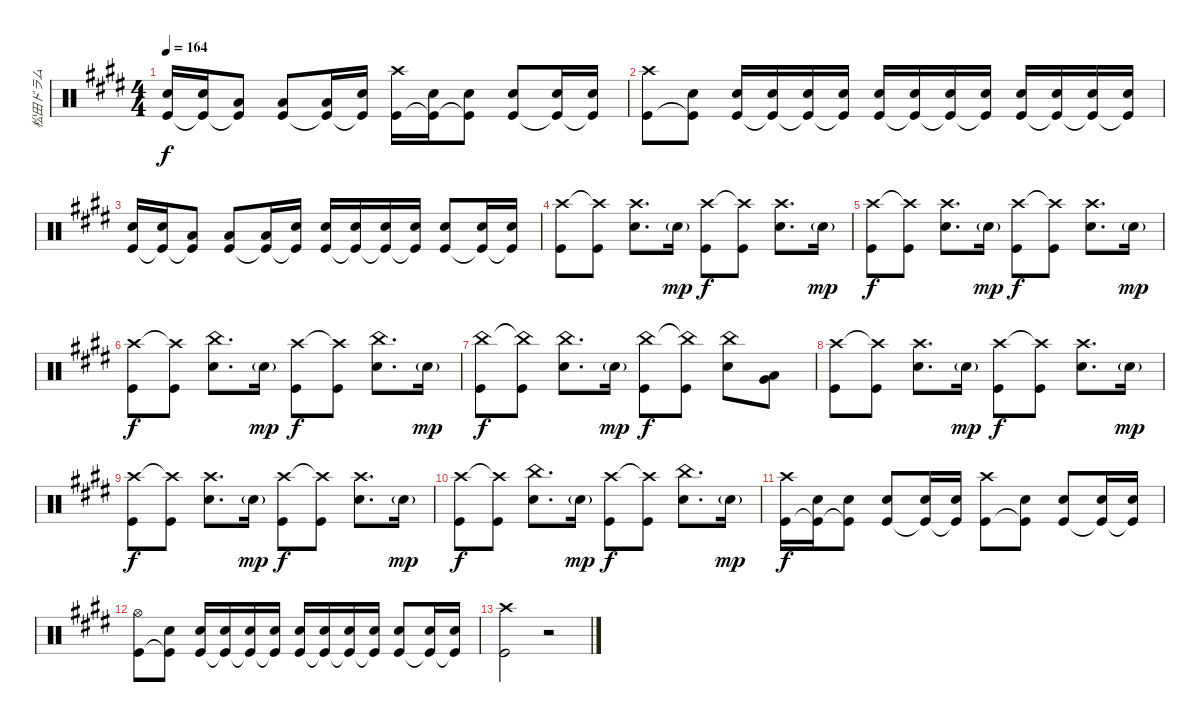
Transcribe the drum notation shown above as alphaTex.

\track ("松田ドラム" "松田ドラム") {instrument percussion}
\staff {score}
\articulation defaults
\ts (4 4)
\tempo 164
\clef neutral
\ks e
("Snare (hit) 2" "Kick (hit)").16{dy f} ("Snare (hit) 2" "Kick (hit)"{t}).16 ("Low Tom (hit)" "Kick (hit)"{t}).8 ("Low Tom (hit)" "Kick (hit)").8 ("Low Tom (hit)" "Kick (hit)"{t}).16 ("Snare (hit) 2" "Kick (hit)"{t}).16 ("Crash high (hit)" "Kick (hit)").16 ("Snare (hit) 2" "Kick (hit)"{t}).16 ("Snare (hit) 2" "Kick (hit)"{t}).8 ("Snare (hit) 2" "Kick (hit)").8 ("Snare (hit) 2" "Kick (hit)"{t}).16 ("Snare (hit) 2" "Kick (hit)"{t}).16 |
("Crash high (hit)" "Kick (hit)").8 ("Snare (hit) 2" "Kick (hit)"{t}).8 ("Snare (hit) 2" "Kick (hit)").16 ("Snare (hit) 2" "Kick (hit)"{t}).16 ("Snare (hit) 2" "Kick (hit)"{t}).16 ("Snare (hit) 2" "Kick (hit)"{t}).16 ("Snare (hit) 2" "Kick (hit)").16 ("Snare (hit) 2" "Kick (hit)"{t}).16 ("Snare (hit) 2" "Kick (hit)"{t}).16 ("Snare (hit) 2" "Kick (hit)"{t}).16 ("Snare (hit) 2" "Kick (hit)").16 ("Snare (hit) 2" "Kick (hit)"{t}).16 ("Snare (hit) 2" "Kick (hit)"{t}).16 ("Snare (hit) 2" "Kick (hit)"{t}).16 |
("Snare (hit) 2" "Kick (hit)").16 ("Snare (hit) 2" "Kick (hit)"{t}).16 ("Low Tom (hit)" "Kick (hit)"{t}).8 ("Low Tom (hit)" "Kick (hit)").8 ("Low Tom (hit)" "Kick (hit)"{t}).16 ("Snare (hit) 2" "Kick (hit)"{t}).16 ("Snare (hit) 2" "Kick (hit)").16 ("Snare (hit) 2" "Kick (hit)"{t}).16 ("Snare (hit) 2" "Kick (hit)"{t}).16 ("Snare (hit) 2" "Kick (hit)"{t}).16 ("Snare (hit) 2" "Kick (hit)").8 ("Snare (hit) 2" "Kick (hit)"{t}).16 ("Snare (hit) 2" "Kick (hit)"{t}).16 |
("Crash high (hit)" "Kick (hit)").8 ("Crash high (hit)"{t} "Kick (hit)").8 ("Crash high (hit)" "Snare (hit) 2").8{d} "Snare (hit) 2"{g}.16{dy mp} ("Crash high (hit)" "Kick (hit)").8{dy f} ("Crash high (hit)"{t} "Kick (hit)").8 ("Crash high (hit)" "Snare (hit) 2").8{d} "Snare (hit) 2"{g}.16{dy mp} |
("Crash high (hit)" "Kick (hit)").8{dy f} ("Crash high (hit)"{t} "Kick (hit)").8 ("Crash high (hit)" "Snare (hit) 2").8{d} "Snare (hit) 2"{g}.16{dy mp} ("Crash high (hit)" "Kick (hit)").8{dy f} ("Crash high (hit)"{t} "Kick (hit)").8 ("Crash high (hit)" "Snare (hit) 2").8{d} "Snare (hit) 2"{g}.16{dy mp} |
("Crash high (hit)" "Kick (hit)").8{dy f} ("Crash high (hit)"{t} "Kick (hit)").8 ("China (hit)" "Snare (hit) 2").8{d} "Snare (hit) 2"{g}.16{dy mp} ("Crash high (hit)" "Kick (hit)").8{dy f} ("Crash high (hit)"{t} "Kick (hit)").8 ("China (hit)" "Snare (hit) 2").8{d} "Snare (hit) 2"{g}.16{dy mp} |
("China (hit)" "Kick (hit)").8{dy f} ("China (hit)"{t} "Kick (hit)").8 ("China (hit)" "Snare (hit) 2").8{d} "Snare (hit) 2"{g}.16{dy mp} ("China (hit)" "Kick (hit)").8{dy f} ("China (hit)"{t} "Kick (hit)").8 ("China (hit)" "Snare (hit) 2").8 ("Low Tom (hit)" "Very Low Tom (hit)").8 |
("Crash high (hit)" "Kick (hit)").8 ("Crash high (hit)"{t} "Kick (hit)").8 ("Crash high (hit)" "Snare (hit) 2").8{d} "Snare (hit) 2"{g}.16{dy mp} ("Crash high (hit)" "Kick (hit)").8{dy f} ("Crash high (hit)"{t} "Kick (hit)").8 ("Crash high (hit)" "Snare (hit) 2").8{d} "Snare (hit) 2"{g}.16{dy mp} |
("Crash high (hit)" "Kick (hit)").8{dy f} ("Crash high (hit)"{t} "Kick (hit)").8 ("Crash high (hit)" "Snare (hit) 2").8{d} "Snare (hit) 2"{g}.16{dy mp} ("Crash high (hit)" "Kick (hit)").8{dy f} ("Crash high (hit)"{t} "Kick (hit)").8 ("Crash high (hit)" "Snare (hit) 2").8{d} "Snare (hit) 2"{g}.16{dy mp} |
("Crash high (hit)" "Kick (hit)").8{dy f} ("Crash high (hit)"{t} "Kick (hit)").8 ("China (hit)" "Snare (hit) 2").8{d} "Snare (hit) 2"{g}.16{dy mp} ("Crash high (hit)" "Kick (hit)").8{dy f} ("Crash high (hit)"{t} "Kick (hit)").8 ("China (hit)" "Snare (hit) 2").8{d} "Snare (hit) 2"{g}.16{dy mp} |
("Crash high (hit)" "Kick (hit)").16{dy f} ("Snare (hit) 2" "Kick (hit)"{t}).16 ("Snare (hit) 2" "Kick (hit)"{t}).8 ("Snare (hit) 2" "Kick (hit)").8 ("Snare (hit) 2" "Kick (hit)"{t}).16 ("Snare (hit) 2" "Kick (hit)"{t}).16 ("Crash high (hit)" "Kick (hit)").8 ("Snare (hit) 2" "Kick (hit)"{t}).8 ("Snare (hit) 2" "Kick (hit)").8 ("Snare (hit) 2" "Kick (hit)"{t}).16 ("Snare (hit) 2" "Kick (hit)"{t}).16 |
("Hi-Hat (open)" "Kick (hit)").8 ("Snare (hit) 2" "Kick (hit)"{t}).8 ("Snare (hit) 2" "Kick (hit)").16 ("Snare (hit) 2" "Kick (hit)"{t}).16 ("Snare (hit) 2" "Kick (hit)"{t}).16 ("Snare (hit) 2" "Kick (hit)"{t}).16 ("Snare (hit) 2" "Kick (hit)").16 ("Snare (hit) 2" "Kick (hit)"{t}).16 ("Snare (hit) 2" "Kick (hit)"{t}).16 ("Snare (hit) 2" "Kick (hit)"{t}).16 ("Snare (hit) 2" "Kick (hit)").8 ("Snare (hit) 2" "Kick (hit)"{t}).16 ("Snare (hit) 2" "Kick (hit)"{t}).16 |
("Crash high (hit)" "Kick (hit)").2 r.2
